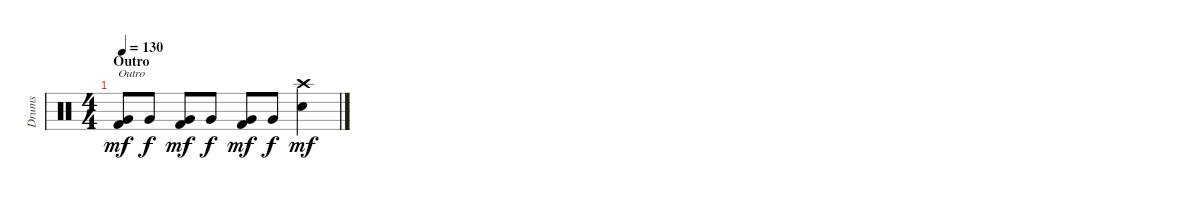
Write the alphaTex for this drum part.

\track ("Drums" "Drums") {instrument percussion}
\staff {score}
\articulation defaults
\ts (4 4)
\section ("" "Outro")
\tempo 130
\clef neutral
\ks c
("Very Low Tom (hit)" "Kick (hit) 2").8{txt "Outro" dy mf} "Very Low Tom (hit)".8{dy f} ("Very Low Tom (hit)" "Kick (hit) 2").8{dy mf} "Very Low Tom (hit)".8{dy f} ("Very Low Tom (hit)" "Kick (hit) 2").8{dy mf} "Very Low Tom (hit)".8{dy f} ("Crash high (hit)" "Electric Snare (hit)").4{dy mf}
